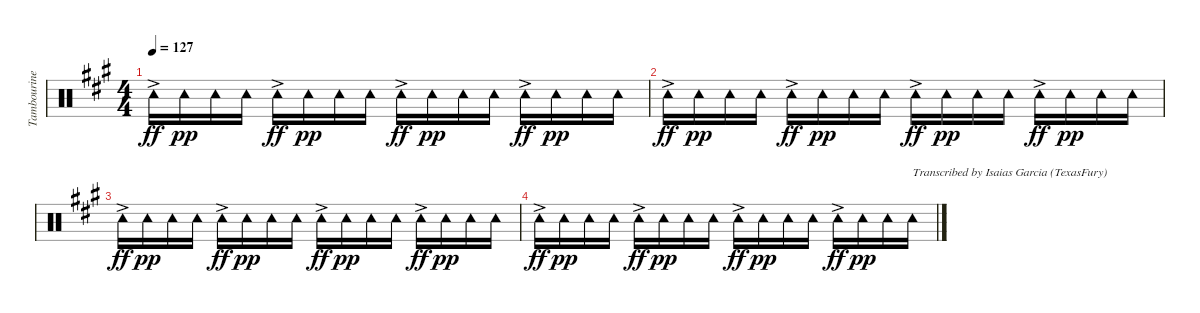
\track ("Tambourine" "Tambourine") {instrument percussion}
\staff {score}
\articulation defaults
\ts (4 4)
\tempo 127
\clef neutral
\ks a "Tambourine (hit)"{ac}.16{dy ff} "Tambourine (hit)".16{dy pp} "Tambourine (hit)".16 "Tambourine (hit)".16 "Tambourine (hit)"{ac}.16{dy ff} "Tambourine (hit)".16{dy pp} "Tambourine (hit)".16 "Tambourine (hit)".16 "Tambourine (hit)"{ac}.16{dy ff} "Tambourine (hit)".16{dy pp} "Tambourine (hit)".16 "Tambourine (hit)".16 "Tambourine (hit)"{ac}.16{dy ff} "Tambourine (hit)".16{dy pp} "Tambourine (hit)".16 "Tambourine (hit)".16
|
"Tambourine (hit)"{ac}.16{dy ff} "Tambourine (hit)".16{dy pp} "Tambourine (hit)".16 "Tambourine (hit)".16 "Tambourine (hit)"{ac}.16{dy ff} "Tambourine (hit)".16{dy pp} "Tambourine (hit)".16 "Tambourine (hit)".16 "Tambourine (hit)"{ac}.16{dy ff} "Tambourine (hit)".16{dy pp} "Tambourine (hit)".16 "Tambourine (hit)".16 "Tambourine (hit)"{ac}.16{dy ff} "Tambourine (hit)".16{dy pp} "Tambourine (hit)".16 "Tambourine (hit)".16 |
"Tambourine (hit)"{ac}.16{dy ff} "Tambourine (hit)".16{dy pp} "Tambourine (hit)".16 "Tambourine (hit)".16 "Tambourine (hit)"{ac}.16{dy ff} "Tambourine (hit)".16{dy pp} "Tambourine (hit)".16 "Tambourine (hit)".16 "Tambourine (hit)"{ac}.16{dy ff} "Tambourine (hit)".16{dy pp} "Tambourine (hit)".16 "Tambourine (hit)".16 "Tambourine (hit)"{ac}.16{dy ff} "Tambourine (hit)".16{dy pp} "Tambourine (hit)".16 "Tambourine (hit)".16 |
"Tambourine (hit)"{ac}.16{dy ff} "Tambourine (hit)".16{dy pp} "Tambourine (hit)".16 "Tambourine (hit)".16 "Tambourine (hit)"{ac}.16{dy ff} "Tambourine (hit)".16{dy pp} "Tambourine (hit)".16 "Tambourine (hit)".16 "Tambourine (hit)"{ac}.16{dy ff} "Tambourine (hit)".16{dy pp} "Tambourine (hit)".16 "Tambourine (hit)".16 "Tambourine (hit)"{ac}.16{dy ff} "Tambourine (hit)".16{dy pp} "Tambourine (hit)".16 "Tambourine (hit)".16{txt "Transcribed by Isaias Garcia (TexasFury)"}
